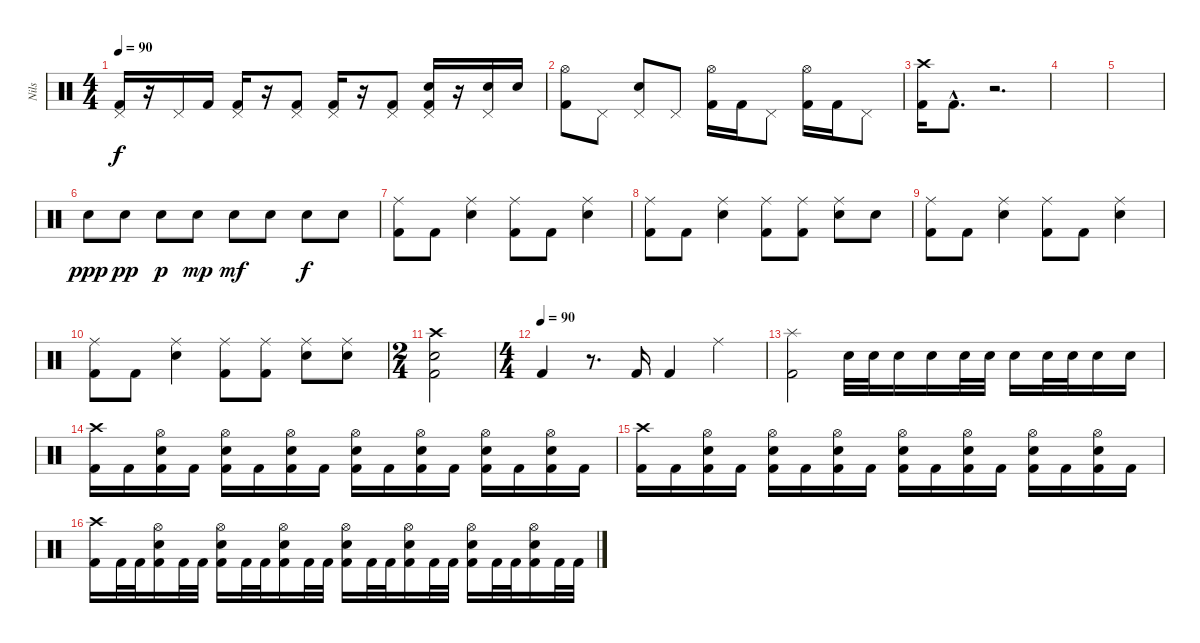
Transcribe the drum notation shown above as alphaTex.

\track ("Nils" "Nils") {instrument percussion}
\staff {score}
\articulation defaults
\ts (4 4)
\tempo 90
\clef neutral
\ks c
("Pedal Hi-Hat (hit)" "Kick (hit) 2").16{dy f} r.16 "Pedal Hi-Hat (hit)".16 "Kick (hit) 2".16 ("Pedal Hi-Hat (hit)" "Kick (hit) 2").16 r.16 ("Pedal Hi-Hat (hit)" "Kick (hit) 2").8 ("Pedal Hi-Hat (hit)" "Kick (hit) 2").16 r.16 ("Pedal Hi-Hat (hit)" "Kick (hit) 2").8 ("Pedal Hi-Hat (hit)" "Snare (hit) 2" "Kick (hit) 2").16 r.16 ("Pedal Hi-Hat (hit)" "Snare (hit) 2").16 "Snare (hit) 2".16 |
("Hi-Hat (open)" "Kick (hit) 2").8 "Pedal Hi-Hat (hit)".8 ("Pedal Hi-Hat (hit)" "Snare (hit) 2").8 "Pedal Hi-Hat (hit)".8 ("Hi-Hat (open)" "Kick (hit) 2").16 "Kick (hit) 2".16 "Pedal Hi-Hat (hit)".8 ("Hi-Hat (open)" "Kick (hit) 2").16 "Kick (hit) 2".16 "Pedal Hi-Hat (hit)".8 |
("Crash high (hit)" "Kick (hit) 2").16 "Kick (hit) 2"{hac}.8{d} r.2{d} |
|
|
"Snare (hit) 2".8{dy ppp} "Snare (hit) 2".8{dy pp} "Snare (hit) 2".8{dy p} "Snare (hit) 2".8{dy mp} "Snare (hit) 2".8{dy mf} "Snare (hit) 2".8 "Snare (hit) 2".8{dy f} "Snare (hit) 2".8 |
("Ride (middle)" "Kick (hit) 2").8 "Kick (hit) 2".8 ("Ride (middle)" "Snare (hit) 2").4 ("Ride (middle)" "Kick (hit) 2").8 "Kick (hit) 2".8 ("Ride (middle)" "Snare (hit) 2").4 |
("Ride (middle)" "Kick (hit) 2").8 "Kick (hit) 2".8 ("Ride (middle)" "Snare (hit) 2").4 ("Ride (middle)" "Kick (hit) 2").8 ("Ride (middle)" "Kick (hit) 2").8 ("Ride (middle)" "Snare (hit) 2").8 "Snare (hit) 2".8 |
("Ride (middle)" "Kick (hit) 2").8 "Kick (hit) 2".8 ("Ride (middle)" "Snare (hit) 2").4 ("Ride (middle)" "Kick (hit) 2").8 "Kick (hit) 2".8 ("Ride (middle)" "Snare (hit) 2").4 |
("Ride (middle)" "Kick (hit) 2").8 "Kick (hit) 2".8 ("Ride (middle)" "Snare (hit) 2").4 ("Ride (middle)" "Kick (hit) 2").8 ("Ride (middle)" "Kick (hit) 2").8 ("Ride (middle)" "Snare (hit) 2").8 ("Ride (middle)" "Snare (hit) 2").8 |
\ts (2 4)
("Crash high (hit)" "Snare (hit) 2" "Kick (hit) 2").2 |
\ts (4 4)
\tempo (90)
"Kick (hit) 2".4 r.8{d} "Kick (hit) 2".16 "Kick (hit) 2".4 "Ride (middle)".4 |
("Splash (hit)" "Kick (hit) 2").2 "Snare (hit) 2".32 "Snare (hit) 2".32 "Snare (hit) 2".16 "Snare (hit) 2".16 "Snare (hit) 2".32 "Snare (hit) 2".32 "Snare (hit) 2".16 "Snare (hit) 2".32 "Snare (hit) 2".32 "Snare (hit) 2".16 "Snare (hit) 2".16 |
("Crash high (hit)" "Kick (hit) 2").16 "Kick (hit) 2".16 ("Hi-Hat (open)" "Snare (hit) 2" "Kick (hit) 2").16 "Kick (hit) 2".16 ("Hi-Hat (open)" "Snare (hit) 2" "Kick (hit) 2").16 "Kick (hit) 2".16 ("Hi-Hat (open)" "Snare (hit) 2" "Kick (hit) 2").16 "Kick (hit) 2".16 ("Hi-Hat (open)" "Snare (hit) 2" "Kick (hit) 2").16 "Kick (hit) 2".16 ("Hi-Hat (open)" "Snare (hit) 2" "Kick (hit) 2").16 "Kick (hit) 2".16 ("Hi-Hat (open)" "Snare (hit) 2" "Kick (hit) 2").16 "Kick (hit) 2".16 ("Hi-Hat (open)" "Snare (hit) 2" "Kick (hit) 2").16 "Kick (hit) 2".16 |
("Crash high (hit)" "Kick (hit) 2").16 "Kick (hit) 2".16 ("Hi-Hat (open)" "Snare (hit) 2" "Kick (hit) 2").16 "Kick (hit) 2".16 ("Hi-Hat (open)" "Snare (hit) 2" "Kick (hit) 2").16 "Kick (hit) 2".16 ("Hi-Hat (open)" "Snare (hit) 2" "Kick (hit) 2").16 "Kick (hit) 2".16 ("Hi-Hat (open)" "Snare (hit) 2" "Kick (hit) 2").16 "Kick (hit) 2".16 ("Hi-Hat (open)" "Snare (hit) 2" "Kick (hit) 2").16 "Kick (hit) 2".16 ("Hi-Hat (open)" "Snare (hit) 2" "Kick (hit) 2").16 "Kick (hit) 2".16 ("Hi-Hat (open)" "Snare (hit) 2" "Kick (hit) 2").16 "Kick (hit) 2".16 |
("Crash high (hit)" "Kick (hit) 2").16 "Kick (hit) 2".32 "Kick (hit) 2".32 ("Hi-Hat (open)" "Snare (hit) 2" "Kick (hit) 2").16 "Kick (hit) 2".32 "Kick (hit) 2".32 ("Hi-Hat (open)" "Snare (hit) 2" "Kick (hit) 2").16 "Kick (hit) 2".32 "Kick (hit) 2".32 ("Hi-Hat (open)" "Snare (hit) 2" "Kick (hit) 2").16 "Kick (hit) 2".32 "Kick (hit) 2".32 ("Hi-Hat (open)" "Snare (hit) 2" "Kick (hit) 2").16 "Kick (hit) 2".32 "Kick (hit) 2".32 ("Hi-Hat (open)" "Snare (hit) 2" "Kick (hit) 2").16 "Kick (hit) 2".32 "Kick (hit) 2".32 ("Hi-Hat (open)" "Snare (hit) 2" "Kick (hit) 2").16 "Kick (hit) 2".32 "Kick (hit) 2".32 ("Hi-Hat (open)" "Snare (hit) 2" "Kick (hit) 2").16 "Kick (hit) 2".32 "Kick (hit) 2".32
